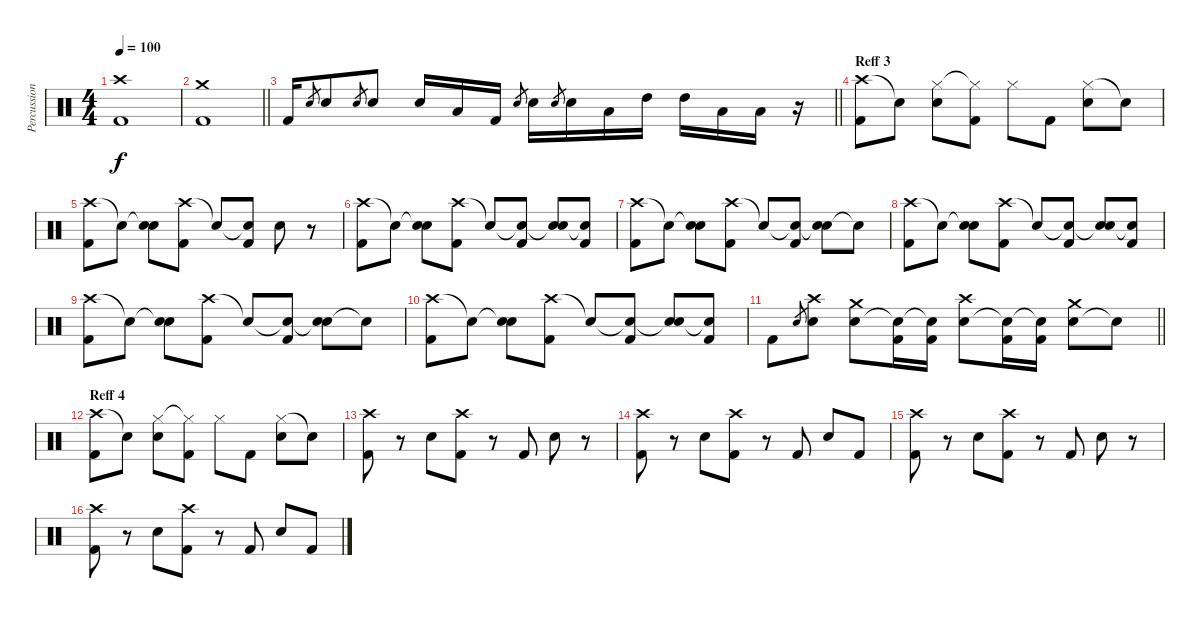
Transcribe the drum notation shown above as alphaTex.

\track ("Percussion(Tomi)" "Percussion") {instrument percussion}
\staff {score}
\articulation defaults
\ts (4 4)
\tempo 100
\clef neutral
\ks c
("Crash high (hit)" "Kick (hit) 2").1{dy f} |
\barLineRight lightlight
("Crash medium (hit)" "Kick (hit) 2").1 |
\barLineRight lightlight "Kick (hit) 2".16 "Electric Snare (hit)".8{gr} "Electric Snare (hit)".8 "Electric Snare (hit)".8{gr} "Electric Snare (hit)".8 "Electric Snare (hit)".16 "Low Tom (hit)".16 "Kick (hit) 2".16 "Electric Snare (hit)".8{gr} "Electric Snare (hit)".16 "Electric Snare (hit)".8{gr} "Electric Snare (hit)".16 "Low Tom (hit)".16 "High Tom (hit)".16 "High Tom (hit)".16 "Low Floor Tom (hit)".16 "Low Tom (hit)".16
r.16 |
\section ("" "Reff 3")
("Crash high (hit)" "Kick (hit) 2").8{volume 14} "Snare (hit)"{t}.8 ("Hi-Hat (closed)" "Electric Snare (hit)").8 ("Hi-Hat (closed)"{t} "Kick (hit) 2").8 "Hi-Hat (closed)".8 "Kick (hit) 2".8 ("Hi-Hat (closed)" "Electric Snare (hit)").8 "Snare (hit)"{t}.8 |
("Crash high (hit)" "Kick (hit) 2").8 "Snare (hit)"{t}.8 ("Snare (hit)"{t} "Electric Snare (hit)").8 ("Crash high (hit)" "Kick (hit) 2").8 "Snare (hit)"{t}.8 ("Snare (hit)"{t} "Kick (hit) 2").8 "Electric Snare (hit)".8 r.8 |
("Crash high (hit)" "Kick (hit) 2").8 "Snare (hit)"{t}.8 ("Snare (hit)"{t} "Electric Snare (hit)").8 ("Crash high (hit)" "Kick (hit) 2").8 "Snare (hit)"{t}.8 ("Snare (hit)"{t} "Kick (hit) 2").8 ("Snare (hit)"{t} "Electric Snare (hit)").8 ("Snare (hit)"{t} "Kick (hit) 2").8 |
("Crash high (hit)" "Kick (hit) 2").8 "Snare (hit)"{t}.8 ("Snare (hit)"{t} "Electric Snare (hit)").8 ("Crash high (hit)" "Kick (hit) 2").8 "Snare (hit)"{t}.8 ("Snare (hit)"{t} "Kick (hit) 2").8 ("Snare (hit)"{t} "Electric Snare (hit)").8 "Snare (hit)"{t}.8 |
("Crash high (hit)" "Kick (hit) 2").8 "Snare (hit)"{t}.8 ("Snare (hit)"{t} "Electric Snare (hit)").8 ("Crash high (hit)" "Kick (hit) 2").8 "Snare (hit)"{t}.8 ("Snare (hit)"{t} "Kick (hit) 2").8 ("Snare (hit)"{t} "Electric Snare (hit)").8 ("Snare (hit)"{t} "Kick (hit) 2").8 |
("Crash high (hit)" "Kick (hit) 2").8 "Snare (hit)"{t}.8 ("Snare (hit)"{t} "Electric Snare (hit)").8 ("Crash high (hit)" "Kick (hit) 2").8 "Snare (hit)"{t}.8 ("Snare (hit)"{t} "Kick (hit) 2").8 ("Snare (hit)"{t} "Electric Snare (hit)").8 "Snare (hit)"{t}.8 |
("Crash high (hit)" "Kick (hit) 2").8 "Snare (hit)"{t}.8 ("Snare (hit)"{t} "Electric Snare (hit)").8 ("Crash high (hit)" "Kick (hit) 2").8 "Snare (hit)"{t}.8 ("Snare (hit)"{t} "Kick (hit) 2").8 ("Snare (hit)"{t} "Electric Snare (hit)").8 ("Snare (hit)"{t} "Kick (hit) 2").8 |
\barLineRight lightlight "Kick (hit) 2".8 "Electric Snare (hit)".8{gr}
("Electric Snare (hit)" "Crash high (hit)").8 ("Electric Snare (hit)" "Crash medium (hit)").8 ("Snare (hit)"{t} "Kick (hit) 2").16 ("Snare (hit)"{t} "Kick (hit) 2").16 ("Electric Snare (hit)" "Crash high (hit)").8 ("Snare (hit)"{t} "Kick (hit) 2").16 ("Snare (hit)"{t} "Kick (hit) 2").16 ("Electric Snare (hit)" "Crash medium (hit)").8 "Snare (hit)"{t}.8 |
\section ("" "Reff 4")
("Crash high (hit)" "Kick (hit) 2").8 "Snare (hit)"{t}.8 ("Hi-Hat (closed)" "Electric Snare (hit)").8 ("Hi-Hat (closed)"{t} "Kick (hit) 2").8 "Hi-Hat (closed)".8 "Kick (hit) 2".8 ("Hi-Hat (closed)" "Electric Snare (hit)").8 "Snare (hit)"{t}.8 |
("Crash high (hit)" "Kick (hit) 2").8 r.8 "Electric Snare (hit)".8 ("Crash high (hit)" "Kick (hit) 2").8 r.8 "Kick (hit) 2".8 "Electric Snare (hit)".8 r.8 |
("Crash high (hit)" "Kick (hit) 2").8 r.8 "Electric Snare (hit)".8 ("Crash high (hit)" "Kick (hit) 2").8 r.8 "Kick (hit) 2".8 "Electric Snare (hit)".8 "Kick (hit) 2".8 |
("Crash high (hit)" "Kick (hit) 2").8 r.8 "Electric Snare (hit)".8 ("Crash high (hit)" "Kick (hit) 2").8 r.8 "Kick (hit) 2".8 "Electric Snare (hit)".8 r.8 |
("Crash high (hit)" "Kick (hit) 2").8 r.8 "Electric Snare (hit)".8 ("Crash high (hit)" "Kick (hit) 2").8 r.8 "Kick (hit) 2".8 "Electric Snare (hit)".8 "Kick (hit) 2".8
